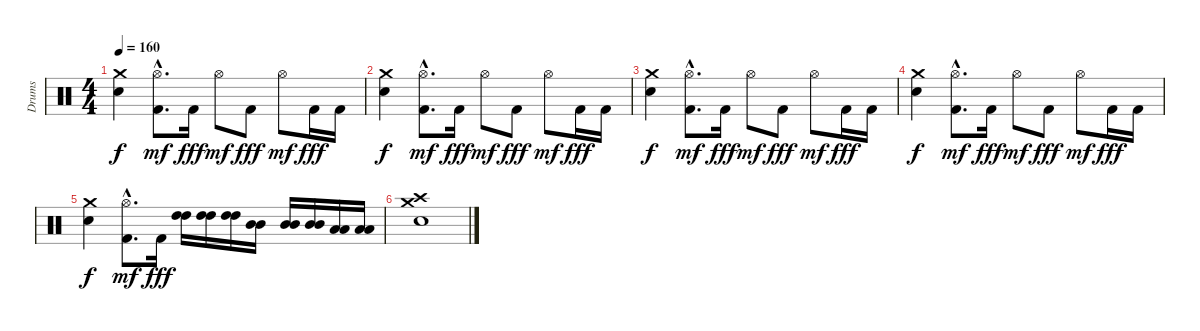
\track ("Drums" "Drums") {instrument percussion}
\staff {score}
\articulation defaults
\ts (4 4)
\tempo 160
\clef neutral
\ks c
("Crash medium (hit)" "Electric Snare (hit)").4{dy f} ("Kick (hit) 2"{hac} "Hi-Hat (open)"{hac}).8{d dy mf} "Kick (hit) 2".16{dy fff} "Hi-Hat (open)".8{dy mf} "Kick (hit) 2".8{dy fff} "Hi-Hat (open)".8{dy mf} "Kick (hit) 2".16{dy fff} "Kick (hit) 2".16 |
("Crash medium (hit)" "Electric Snare (hit)").4{dy f} ("Kick (hit) 2"{hac} "Hi-Hat (open)"{hac}).8{d dy mf} "Kick (hit) 2".16{dy fff} "Hi-Hat (open)".8{dy mf} "Kick (hit) 2".8{dy fff} "Hi-Hat (open)".8{dy mf} "Kick (hit) 2".16{dy fff} "Kick (hit) 2".16 |
("Crash medium (hit)" "Electric Snare (hit)").4{dy f} ("Kick (hit) 2"{hac} "Hi-Hat (open)"{hac}).8{d dy mf} "Kick (hit) 2".16{dy fff} "Hi-Hat (open)".8{dy mf} "Kick (hit) 2".8{dy fff} "Hi-Hat (open)".8{dy mf} "Kick (hit) 2".16{dy fff} "Kick (hit) 2".16 |
("Crash medium (hit)" "Electric Snare (hit)").4{dy f} ("Kick (hit) 2"{hac} "Hi-Hat (open)"{hac}).8{d dy mf} "Kick (hit) 2".16{dy fff} "Hi-Hat (open)".8{dy mf} "Kick (hit) 2".8{dy fff} "Hi-Hat (open)".8{dy mf} "Kick (hit) 2".16{dy fff} "Kick (hit) 2".16 |
("Crash medium (hit)" "Electric Snare (hit)").4{dy f} ("Kick (hit) 2"{hac} "Hi-Hat (open)"{hac}).8{d dy mf} "Kick (hit) 2".16{dy fff} ("High Tom (hit)" "High Tom (hit)").16 ("High Tom (hit)" "High Tom (hit)").16 ("High Tom (hit)" "High Tom (hit)").16 ("Mid Tom (hit)" "Mid Tom (hit)").16 ("Mid Tom (hit)" "Mid Tom (hit)").16 ("Mid Tom (hit)" "Mid Tom (hit)").16 ("Low Tom (hit)" "Low Tom (hit)").16 ("Low Tom (hit)" "Low Tom (hit)").16 |
("Crash medium (hit)" "Crash high (hit)" "Electric Snare (hit)").1
